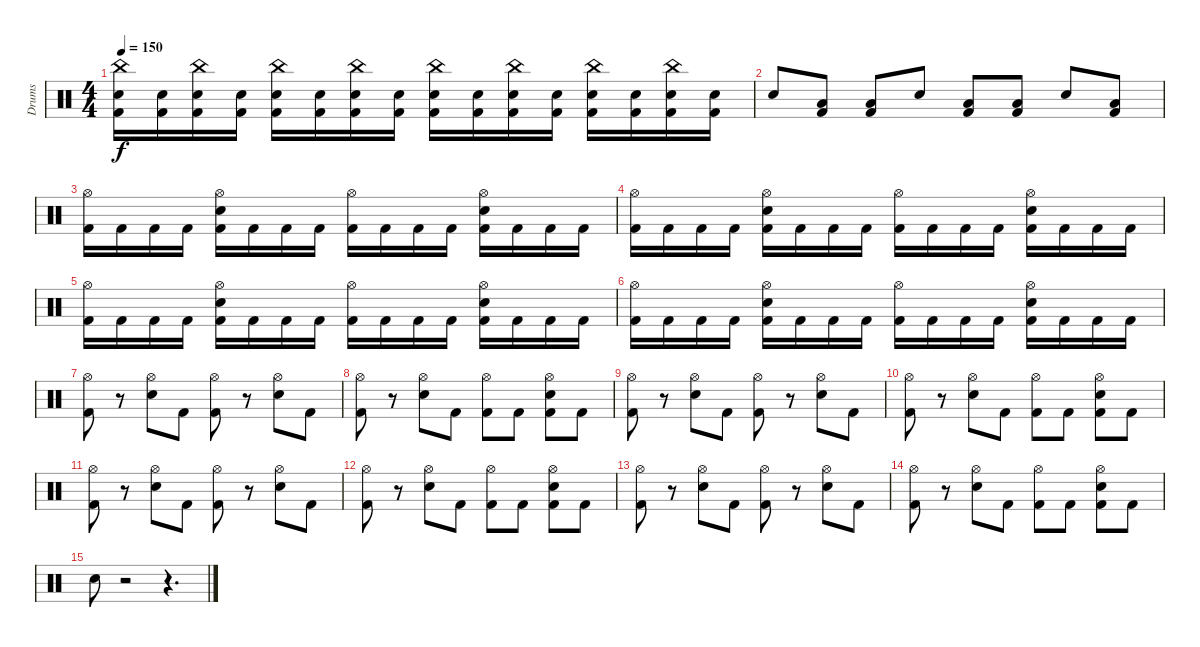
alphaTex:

\track ("Drums" "Drums") {instrument percussion}
\staff {score}
\articulation defaults
\ts (4 4)
\tempo 150
\clef neutral
\ks c
("China (hit)" "Electric Snare (hit)" "Kick (hit) 2").16{dy f} ("Electric Snare (hit)" "Kick (hit) 2").16 ("China (hit)" "Electric Snare (hit)" "Kick (hit) 2").16 ("Electric Snare (hit)" "Kick (hit) 2").16 ("China (hit)" "Electric Snare (hit)" "Kick (hit) 2").16 ("Electric Snare (hit)" "Kick (hit) 2").16 ("China (hit)" "Electric Snare (hit)" "Kick (hit) 2").16 ("Electric Snare (hit)" "Kick (hit) 2").16 ("China (hit)" "Electric Snare (hit)" "Kick (hit) 2").16 ("Electric Snare (hit)" "Kick (hit) 2").16 ("China (hit)" "Electric Snare (hit)" "Kick (hit) 2").16 ("Electric Snare (hit)" "Kick (hit) 2").16 ("China (hit)" "Electric Snare (hit)" "Kick (hit) 2").16 ("Electric Snare (hit)" "Kick (hit) 2").16 ("China (hit)" "Electric Snare (hit)" "Kick (hit) 2").16 ("Electric Snare (hit)" "Kick (hit) 2").16 |
"Electric Snare (hit)".8 ("Low Floor Tom (hit)" "Kick (hit) 2").8 ("Low Floor Tom (hit)" "Kick (hit) 2").8 "Electric Snare (hit)".8 ("Low Floor Tom (hit)" "Kick (hit) 2").8 ("Low Floor Tom (hit)" "Kick (hit) 2").8 "Electric Snare (hit)".8 ("Low Floor Tom (hit)" "Kick (hit) 2").8 |
("Hi-Hat (open)" "Kick (hit) 2").16 "Kick (hit) 2".16 "Kick (hit) 2".16 "Kick (hit) 2".16 ("Hi-Hat (open)" "Electric Snare (hit)" "Kick (hit) 2").16 "Kick (hit) 2".16 "Kick (hit) 2".16 "Kick (hit) 2".16 ("Hi-Hat (open)" "Kick (hit) 2").16 "Kick (hit) 2".16 "Kick (hit) 2".16 "Kick (hit) 2".16 ("Hi-Hat (open)" "Electric Snare (hit)" "Kick (hit) 2").16 "Kick (hit) 2".16 "Kick (hit) 2".16 "Kick (hit) 2".16 |
("Hi-Hat (open)" "Kick (hit) 2").16 "Kick (hit) 2".16 "Kick (hit) 2".16 "Kick (hit) 2".16 ("Hi-Hat (open)" "Electric Snare (hit)" "Kick (hit) 2").16 "Kick (hit) 2".16 "Kick (hit) 2".16 "Kick (hit) 2".16 ("Hi-Hat (open)" "Kick (hit) 2").16 "Kick (hit) 2".16 "Kick (hit) 2".16 "Kick (hit) 2".16 ("Hi-Hat (open)" "Electric Snare (hit)" "Kick (hit) 2").16 "Kick (hit) 2".16 "Kick (hit) 2".16 "Kick (hit) 2".16 |
("Hi-Hat (open)" "Kick (hit) 2").16 "Kick (hit) 2".16 "Kick (hit) 2".16 "Kick (hit) 2".16 ("Hi-Hat (open)" "Electric Snare (hit)" "Kick (hit) 2").16 "Kick (hit) 2".16 "Kick (hit) 2".16 "Kick (hit) 2".16 ("Hi-Hat (open)" "Kick (hit) 2").16 "Kick (hit) 2".16 "Kick (hit) 2".16 "Kick (hit) 2".16 ("Hi-Hat (open)" "Electric Snare (hit)" "Kick (hit) 2").16 "Kick (hit) 2".16 "Kick (hit) 2".16 "Kick (hit) 2".16 |
("Hi-Hat (open)" "Kick (hit) 2").16 "Kick (hit) 2".16 "Kick (hit) 2".16 "Kick (hit) 2".16 ("Hi-Hat (open)" "Electric Snare (hit)" "Kick (hit) 2").16 "Kick (hit) 2".16 "Kick (hit) 2".16 "Kick (hit) 2".16 ("Hi-Hat (open)" "Kick (hit) 2").16 "Kick (hit) 2".16 "Kick (hit) 2".16 "Kick (hit) 2".16 ("Hi-Hat (open)" "Electric Snare (hit)" "Kick (hit) 2").16 "Kick (hit) 2".16 "Kick (hit) 2".16 "Kick (hit) 2".16 |
("Hi-Hat (open)" "Kick (hit) 2").8 r.8 ("Hi-Hat (open)" "Electric Snare (hit)").8 "Kick (hit) 2".8 ("Hi-Hat (open)" "Kick (hit) 2").8 r.8 ("Hi-Hat (open)" "Electric Snare (hit)").8 "Kick (hit) 2".8 |
("Hi-Hat (open)" "Kick (hit) 2").8 r.8 ("Hi-Hat (open)" "Electric Snare (hit)").8 "Kick (hit) 2".8 ("Hi-Hat (open)" "Kick (hit) 2").8 "Kick (hit) 2".8 ("Hi-Hat (open)" "Electric Snare (hit)" "Kick (hit) 2").8 "Kick (hit) 2".8 |
("Hi-Hat (open)" "Kick (hit) 2").8 r.8 ("Hi-Hat (open)" "Electric Snare (hit)").8 "Kick (hit) 2".8 ("Hi-Hat (open)" "Kick (hit) 2").8 r.8 ("Hi-Hat (open)" "Electric Snare (hit)").8 "Kick (hit) 2".8 |
("Hi-Hat (open)" "Kick (hit) 2").8 r.8 ("Hi-Hat (open)" "Electric Snare (hit)").8 "Kick (hit) 2".8 ("Hi-Hat (open)" "Kick (hit) 2").8 "Kick (hit) 2".8 ("Hi-Hat (open)" "Electric Snare (hit)" "Kick (hit) 2").8 "Kick (hit) 2".8 |
("Hi-Hat (open)" "Kick (hit) 2").8 r.8 ("Hi-Hat (open)" "Electric Snare (hit)").8 "Kick (hit) 2".8 ("Hi-Hat (open)" "Kick (hit) 2").8 r.8 ("Hi-Hat (open)" "Electric Snare (hit)").8 "Kick (hit) 2".8 |
("Hi-Hat (open)" "Kick (hit) 2").8 r.8 ("Hi-Hat (open)" "Electric Snare (hit)").8 "Kick (hit) 2".8 ("Hi-Hat (open)" "Kick (hit) 2").8 "Kick (hit) 2".8 ("Hi-Hat (open)" "Electric Snare (hit)" "Kick (hit) 2").8 "Kick (hit) 2".8 |
("Hi-Hat (open)" "Kick (hit) 2").8 r.8 ("Hi-Hat (open)" "Electric Snare (hit)").8 "Kick (hit) 2".8 ("Hi-Hat (open)" "Kick (hit) 2").8 r.8 ("Hi-Hat (open)" "Electric Snare (hit)").8 "Kick (hit) 2".8 |
("Hi-Hat (open)" "Kick (hit) 2").8 r.8 ("Hi-Hat (open)" "Electric Snare (hit)").8 "Kick (hit) 2".8 ("Hi-Hat (open)" "Kick (hit) 2").8 "Kick (hit) 2".8 ("Hi-Hat (open)" "Electric Snare (hit)" "Kick (hit) 2").8 "Kick (hit) 2".8 |
"Electric Snare (hit)".8 r.2{volume 8} r.4{d}
